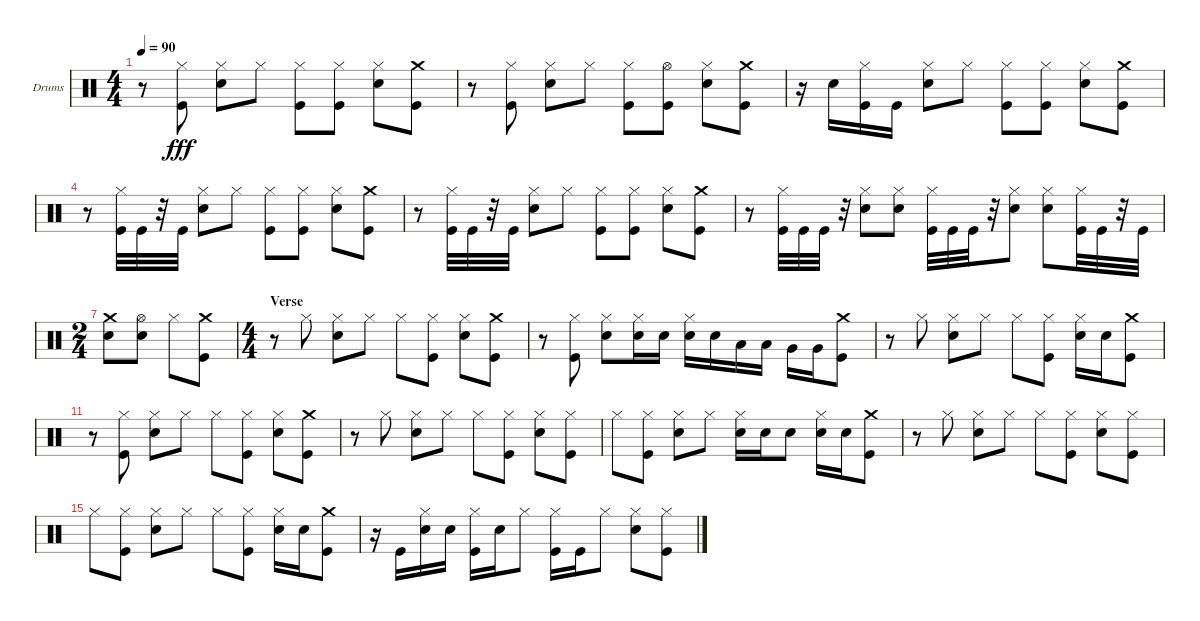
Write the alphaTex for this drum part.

\bracketExtendMode nobrackets
\firstSystemTrackNameOrientation horizontal
\otherSystemsTrackNameOrientation horizontal
\defaultBarNumberDisplay FirstOfSystem
\track ("Drums" "Drums") {instrument percussion}
\staff {score}
\articulation defaults
\ts (4 4)
\tempo 90
\clef neutral
\ks c
r.8{dy fff} ("Hi-Hat (closed)" "Kick (hit)").8 ("Snare (hit) 2" "Hi-Hat (closed)").8 "Hi-Hat (closed)".8 ("Kick (hit)" "Hi-Hat (closed)").8 ("Hi-Hat (closed)" "Kick (hit)").8 ("Hi-Hat (closed)" "Snare (hit) 2").8 ("Kick (hit)" "Crash medium (hit)").8 |
r.8 ("Kick (hit)" "Hi-Hat (closed)").8 ("Snare (hit) 2" "Hi-Hat (closed)").8 "Hi-Hat (closed)".8 ("Kick (hit)" "Hi-Hat (closed)").8 ("Kick (hit)" "Hi-Hat (open)").8 ("Hi-Hat (closed)" "Snare (hit) 2").8 ("Kick (hit)" "Crash medium (hit)").8 |
r.16 "Snare (hit) 2".16 ("Hi-Hat (closed)" "Kick (hit)").16 "Kick (hit)".16 ("Snare (hit) 2" "Hi-Hat (closed)").8 "Hi-Hat (closed)".8 ("Kick (hit)" "Hi-Hat (closed)").8 ("Kick (hit)" "Hi-Hat (closed)").8 ("Hi-Hat (closed)" "Snare (hit) 2").8 ("Kick (hit)" "Crash medium (hit)").8 |
r.8 ("Kick (hit)" "Hi-Hat (closed)").32 "Kick (hit)".32 r.32 "Kick (hit)".32 ("Snare (hit) 2" "Hi-Hat (closed)").8 "Hi-Hat (closed)".8 ("Kick (hit)" "Hi-Hat (closed)").8 ("Kick (hit)" "Hi-Hat (closed)").8 ("Hi-Hat (closed)" "Snare (hit) 2").8 ("Crash medium (hit)" "Kick (hit)").8 |
r.8 ("Hi-Hat (closed)" "Kick (hit)").32 "Kick (hit)".32 r.32 "Kick (hit)".32 ("Hi-Hat (closed)" "Snare (hit) 2").8 "Hi-Hat (closed)".8 ("Kick (hit)" "Hi-Hat (closed)").8 ("Hi-Hat (closed)" "Kick (hit)").8 ("Snare (hit) 2" "Hi-Hat (closed)").8 ("Crash medium (hit)" "Kick (hit)").8 |
r.8 ("Kick (hit)" "Hi-Hat (closed)").32 "Kick (hit)".32 "Kick (hit)".32 r.32 ("Hi-Hat (closed)" "Snare (hit) 2").8 ("Snare (hit) 2" "Hi-Hat (closed)").8 ("Kick (hit)" "Hi-Hat (closed)").32 "Kick (hit)".32 "Kick (hit)".32 r.32 ("Snare (hit) 2" "Hi-Hat (closed)").8 ("Hi-Hat (closed)" "Snare (hit) 2").8 ("Hi-Hat (closed)" "Kick (hit)").32 "Kick (hit)".32 r.32 "Kick (hit)".32 |
\ts (2 4)
("Snare (hit) 2" "Crash medium (hit)").8 ("Hi-Hat (open)" "Snare (hit) 2").8 "Hi-Hat (closed)".8 ("Kick (hit)" "Crash medium (hit)").8 |
\ts (4 4)
\section ("" "Verse")
r.8 "Hi-Hat (closed)".8 ("Hi-Hat (closed)" "Snare (hit) 2").8 "Hi-Hat (closed)".8 "Hi-Hat (closed)".8 ("Hi-Hat (closed)" "Kick (hit)").8 ("Hi-Hat (closed)" "Snare (hit) 2").8 ("Crash medium (hit)" "Kick (hit)").8 |
r.8 ("Kick (hit)" "Hi-Hat (closed)").8 ("Snare (hit) 2" "Hi-Hat (closed)").8 ("Snare (hit) 2" "Hi-Hat (closed)").16 "Snare (hit) 2".16 ("Hi-Hat (closed)" "Snare (hit) 2").16 "Snare (hit) 2".16 "Low Tom (hit)".16 "Low Tom (hit)".16 "Very Low Tom (hit)".16 "Very Low Tom (hit)".16 ("Kick (hit)" "Crash medium (hit)").8 |
r.8 "Hi-Hat (closed)".8 ("Hi-Hat (closed)" "Snare (hit) 2").8 "Hi-Hat (closed)".8 "Hi-Hat (closed)".8 ("Kick (hit)" "Hi-Hat (closed)").8 ("Snare (hit) 2" "Hi-Hat (closed)").16 "Snare (hit) 2".16 ("Kick (hit)" "Crash medium (hit)").8 |
r.8 ("Hi-Hat (closed)" "Kick (hit)").8 ("Hi-Hat (closed)" "Snare (hit) 2").8 "Hi-Hat (closed)".8 "Hi-Hat (closed)".8 ("Kick (hit)" "Hi-Hat (closed)").8 ("Hi-Hat (closed)" "Snare (hit) 2").8 ("Kick (hit)" "Crash medium (hit)").8 |
r.8 "Hi-Hat (closed)".8 ("Hi-Hat (closed)" "Snare (hit) 2").8 "Hi-Hat (closed)".8 "Hi-Hat (closed)".8 ("Kick (hit)" "Hi-Hat (closed)").8 ("Snare (hit) 2" "Hi-Hat (closed)").8 ("Hi-Hat (closed)" "Kick (hit)").8 |
"Hi-Hat (closed)".8 ("Hi-Hat (closed)" "Kick (hit)").8 ("Hi-Hat (closed)" "Snare (hit) 2").8 "Hi-Hat (closed)".8 ("Snare (hit) 2" "Hi-Hat (closed)").16 "Snare (hit) 2".16 "Snare (hit) 2".8 ("Hi-Hat (closed)" "Snare (hit) 2").16 "Snare (hit) 2".16 ("Crash medium (hit)" "Kick (hit)").8 |
r.8 "Hi-Hat (closed)".8 ("Hi-Hat (closed)" "Snare (hit) 2").8 "Hi-Hat (closed)".8 "Hi-Hat (closed)".8 ("Hi-Hat (closed)" "Kick (hit)").8 ("Hi-Hat (closed)" "Snare (hit) 2").8 ("Hi-Hat (closed)" "Kick (hit)").8 |
"Hi-Hat (closed)".8 ("Hi-Hat (closed)" "Kick (hit)").8 ("Hi-Hat (closed)" "Snare (hit) 2").8 "Hi-Hat (closed)".8 "Hi-Hat (closed)".8 ("Kick (hit)" "Hi-Hat (closed)").8 ("Snare (hit) 2" "Hi-Hat (closed)").16 "Snare (hit) 2".16 ("Kick (hit)" "Crash medium (hit)").8 |
r.16 "Kick (hit)".16 ("Hi-Hat (closed)" "Snare (hit) 2").16 "Snare (hit) 2".16 ("Hi-Hat (closed)" "Kick (hit)").16 "Snare (hit) 2".16 "Hi-Hat (closed)".8 ("Kick (hit)" "Hi-Hat (closed)").16 "Kick (hit)".16 "Hi-Hat (closed)".8 ("Hi-Hat (closed)" "Snare (hit) 2").8 ("Hi-Hat (closed)" "Kick (hit)").8
